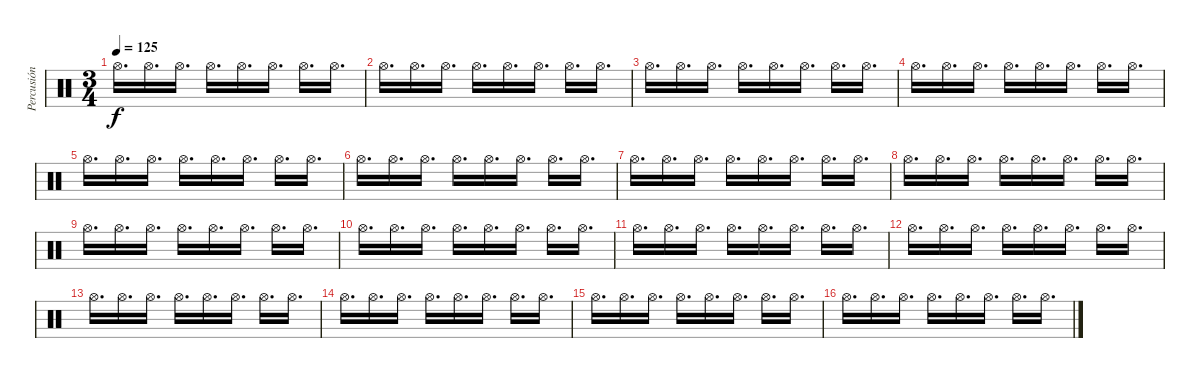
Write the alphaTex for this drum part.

\track ("Percusión" "Percusión") {instrument percussion}
\staff {score}
\articulation defaults
\ts (3 4)
\tempo 125
\clef neutral
\ks c "Hi-Hat (open)".16{d dy f} "Hi-Hat (open)".16{d} "Hi-Hat (open)".16{d} "Hi-Hat (open)".16{d} "Hi-Hat (open)".16{d} "Hi-Hat (open)".16{d} "Hi-Hat (open)".16{d} "Hi-Hat (open)".16{d}
|
"Hi-Hat (open)".16{d} "Hi-Hat (open)".16{d} "Hi-Hat (open)".16{d} "Hi-Hat (open)".16{d} "Hi-Hat (open)".16{d} "Hi-Hat (open)".16{d} "Hi-Hat (open)".16{d} "Hi-Hat (open)".16{d} |
"Hi-Hat (open)".16{d} "Hi-Hat (open)".16{d} "Hi-Hat (open)".16{d} "Hi-Hat (open)".16{d} "Hi-Hat (open)".16{d} "Hi-Hat (open)".16{d} "Hi-Hat (open)".16{d} "Hi-Hat (open)".16{d} |
"Hi-Hat (open)".16{d} "Hi-Hat (open)".16{d} "Hi-Hat (open)".16{d} "Hi-Hat (open)".16{d} "Hi-Hat (open)".16{d} "Hi-Hat (open)".16{d} "Hi-Hat (open)".16{d} "Hi-Hat (open)".16{d} |
"Hi-Hat (open)".16{d} "Hi-Hat (open)".16{d} "Hi-Hat (open)".16{d} "Hi-Hat (open)".16{d} "Hi-Hat (open)".16{d} "Hi-Hat (open)".16{d} "Hi-Hat (open)".16{d} "Hi-Hat (open)".16{d} |
"Hi-Hat (open)".16{d} "Hi-Hat (open)".16{d} "Hi-Hat (open)".16{d} "Hi-Hat (open)".16{d} "Hi-Hat (open)".16{d} "Hi-Hat (open)".16{d} "Hi-Hat (open)".16{d} "Hi-Hat (open)".16{d} |
"Hi-Hat (open)".16{d} "Hi-Hat (open)".16{d} "Hi-Hat (open)".16{d} "Hi-Hat (open)".16{d} "Hi-Hat (open)".16{d} "Hi-Hat (open)".16{d} "Hi-Hat (open)".16{d} "Hi-Hat (open)".16{d} |
"Hi-Hat (open)".16{d} "Hi-Hat (open)".16{d} "Hi-Hat (open)".16{d} "Hi-Hat (open)".16{d} "Hi-Hat (open)".16{d} "Hi-Hat (open)".16{d} "Hi-Hat (open)".16{d} "Hi-Hat (open)".16{d} |
"Hi-Hat (open)".16{d} "Hi-Hat (open)".16{d} "Hi-Hat (open)".16{d} "Hi-Hat (open)".16{d} "Hi-Hat (open)".16{d} "Hi-Hat (open)".16{d} "Hi-Hat (open)".16{d} "Hi-Hat (open)".16{d} |
"Hi-Hat (open)".16{d} "Hi-Hat (open)".16{d} "Hi-Hat (open)".16{d} "Hi-Hat (open)".16{d} "Hi-Hat (open)".16{d} "Hi-Hat (open)".16{d} "Hi-Hat (open)".16{d} "Hi-Hat (open)".16{d} |
"Hi-Hat (open)".16{d} "Hi-Hat (open)".16{d} "Hi-Hat (open)".16{d} "Hi-Hat (open)".16{d} "Hi-Hat (open)".16{d} "Hi-Hat (open)".16{d} "Hi-Hat (open)".16{d} "Hi-Hat (open)".16{d} |
"Hi-Hat (open)".16{d} "Hi-Hat (open)".16{d} "Hi-Hat (open)".16{d} "Hi-Hat (open)".16{d} "Hi-Hat (open)".16{d} "Hi-Hat (open)".16{d} "Hi-Hat (open)".16{d} "Hi-Hat (open)".16{d} |
"Hi-Hat (open)".16{d} "Hi-Hat (open)".16{d} "Hi-Hat (open)".16{d} "Hi-Hat (open)".16{d} "Hi-Hat (open)".16{d} "Hi-Hat (open)".16{d} "Hi-Hat (open)".16{d} "Hi-Hat (open)".16{d} |
"Hi-Hat (open)".16{d} "Hi-Hat (open)".16{d} "Hi-Hat (open)".16{d} "Hi-Hat (open)".16{d} "Hi-Hat (open)".16{d} "Hi-Hat (open)".16{d} "Hi-Hat (open)".16{d} "Hi-Hat (open)".16{d} |
"Hi-Hat (open)".16{d} "Hi-Hat (open)".16{d} "Hi-Hat (open)".16{d} "Hi-Hat (open)".16{d} "Hi-Hat (open)".16{d} "Hi-Hat (open)".16{d} "Hi-Hat (open)".16{d} "Hi-Hat (open)".16{d} |
"Hi-Hat (open)".16{d} "Hi-Hat (open)".16{d} "Hi-Hat (open)".16{d} "Hi-Hat (open)".16{d} "Hi-Hat (open)".16{d} "Hi-Hat (open)".16{d} "Hi-Hat (open)".16{d} "Hi-Hat (open)".16{d}
